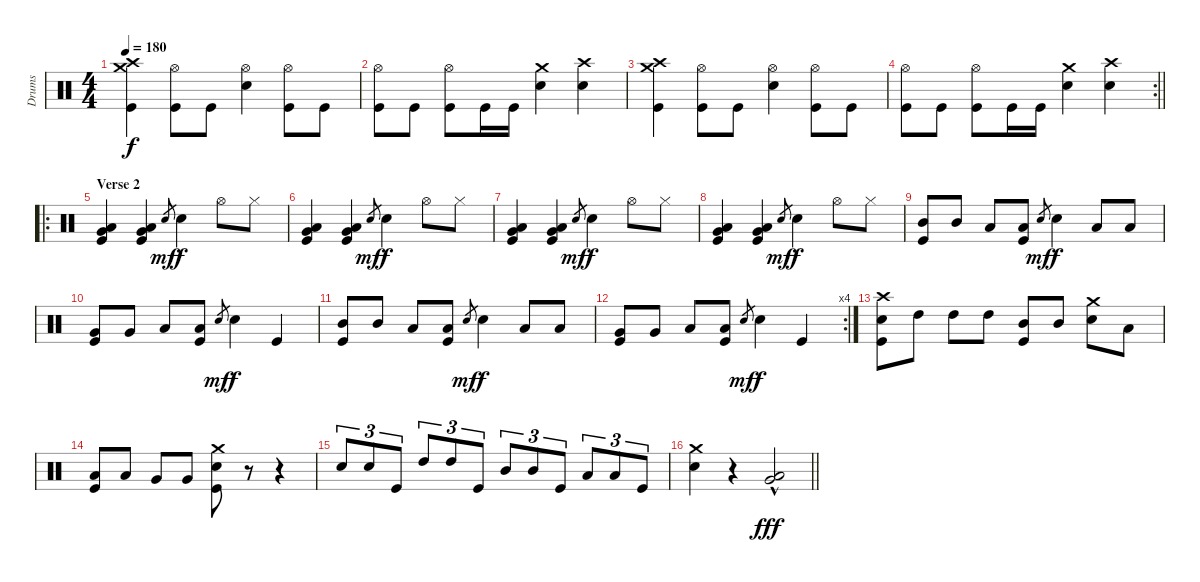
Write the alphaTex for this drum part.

\track ("Drums" "Drums") {instrument percussion}
\staff {score}
\articulation defaults
\ts (4 4)
\tempo 180
\clef neutral
\ks c
("Crash medium (hit)" "Crash high (hit)" "Kick (hit)").4{dy f} ("Hi-Hat (open)" "Kick (hit)").8 "Kick (hit)".8 ("Hi-Hat (open)" "Electric Snare (hit)").4 ("Hi-Hat (open)" "Kick (hit)").8 "Kick (hit)".8 |
("Hi-Hat (open)" "Kick (hit)").8 "Kick (hit)".8 ("Hi-Hat (open)" "Kick (hit)").8 "Kick (hit)".16 "Kick (hit)".16 ("Crash medium (hit)" "Electric Snare (hit)").4 ("Crash high (hit)" "Electric Snare (hit)").4 |
("Crash medium (hit)" "Crash high (hit)" "Kick (hit)").4 ("Hi-Hat (open)" "Kick (hit)").8 "Kick (hit)".8 ("Hi-Hat (open)" "Electric Snare (hit)").4 ("Hi-Hat (open)" "Kick (hit)").8 "Kick (hit)".8 |
\rc 2
\barLineRight lightlight
("Hi-Hat (open)" "Kick (hit)").8 "Kick (hit)".8 ("Hi-Hat (open)" "Kick (hit)").8 "Kick (hit)".16 "Kick (hit)".16 ("Crash medium (hit)" "Electric Snare (hit)").4 ("Crash high (hit)" "Electric Snare (hit)").4 |
\ro
\section ("" "Verse 2")
("Very Low Tom (hit)" "Low Floor Tom (hit)" "Kick (hit)").4 ("Very Low Tom (hit)" "Low Floor Tom (hit)" "Kick (hit)").4 "Electric Snare (hit)"{h}.8{gr dy mf} "Electric Snare (hit)".4{dy f} "Hi-Hat (open)".8 "Hi-Hat (closed)".8 |
("Very Low Tom (hit)" "Low Floor Tom (hit)" "Kick (hit)").4 ("Very Low Tom (hit)" "Low Floor Tom (hit)" "Kick (hit)").4 "Electric Snare (hit)"{h}.8{gr dy mf} "Electric Snare (hit)".4{dy f} "Hi-Hat (open)".8 "Hi-Hat (closed)".8 |
("Very Low Tom (hit)" "Low Floor Tom (hit)" "Kick (hit)").4 ("Very Low Tom (hit)" "Low Floor Tom (hit)" "Kick (hit)").4 "Electric Snare (hit)"{h}.8{gr dy mf} "Electric Snare (hit)".4{dy f} "Hi-Hat (open)".8 "Hi-Hat (closed)".8 |
("Very Low Tom (hit)" "Low Floor Tom (hit)" "Kick (hit)").4 ("Very Low Tom (hit)" "Low Floor Tom (hit)" "Kick (hit)").4 "Electric Snare (hit)"{h}.8{gr dy mf} "Electric Snare (hit)".4{dy f} "Hi-Hat (open)".8 "Hi-Hat (closed)".8 |
("Mid Tom (hit)" "Kick (hit)").8 "Mid Tom (hit)".8 "Low Tom (hit)".8 ("Low Tom (hit)" "Kick (hit)").8 "Electric Snare (hit)"{h}.8{gr dy mf} "Electric Snare (hit)".4{dy f} "Low Tom (hit)".8 "Low Tom (hit)".8 |
("Very Low Tom (hit)" "Kick (hit)").8 "Very Low Tom (hit)".8 "Low Floor Tom (hit)".8 ("Low Floor Tom (hit)" "Kick (hit)").8 "Electric Snare (hit)"{h}.8{gr dy mf} "Electric Snare (hit)".4{dy f} "Kick (hit)".4 |
("Mid Tom (hit)" "Kick (hit)").8 "Mid Tom (hit)".8 "Low Tom (hit)".8 ("Low Tom (hit)" "Kick (hit)").8 "Electric Snare (hit)"{h}.8{gr dy mf} "Electric Snare (hit)".4{dy f} "Low Tom (hit)".8 "Low Tom (hit)".8 |
\rc 4
("Very Low Tom (hit)" "Kick (hit)").8 "Very Low Tom (hit)".8 "Low Floor Tom (hit)".8 ("Low Floor Tom (hit)" "Kick (hit)").8 "Electric Snare (hit)"{h}.8{gr dy mf} "Electric Snare (hit)".4{dy f} "Kick (hit)".4 |
("Crash high (hit)" "Electric Snare (hit)" "Kick (hit)").8 "High Tom (hit)".8 "High Tom (hit)".8 "High Tom (hit)".8 ("Mid Tom (hit)" "Kick (hit)").8 "Mid Tom (hit)".8 ("Crash medium (hit)" "Electric Snare (hit)").8 "Low Tom (hit)".8 |
("Low Tom (hit)" "Kick (hit)").8 "Low Tom (hit)".8 "Very Low Tom (hit)".8 "Very Low Tom (hit)".8 ("Crash medium (hit)" "Electric Snare (hit)" "Kick (hit)").8 r.8 r.4 |
"Electric Snare (hit)".8{tu (3 2)} "Electric Snare (hit)".8{tu (3 2)} "Kick (hit)".8{tu (3 2)} "High Tom (hit)".8{tu (3 2)} "High Tom (hit)".8{tu (3 2)} "Kick (hit)".8{tu (3 2)} "Mid Tom (hit)".8{tu (3 2)} "Mid Tom (hit)".8{tu (3 2)} "Kick (hit)".8{tu (3 2)} "Low Tom (hit)".8{tu (3 2)} "Low Tom (hit)".8{tu (3 2)} "Kick (hit)".8{tu (3 2)} |
\barLineRight lightlight
("Crash medium (hit)" "Electric Snare (hit)").4 r.4 ("Very Low Tom (hit)"{hac} "Low Floor Tom (hit)"{hac}).2{dy fff}
